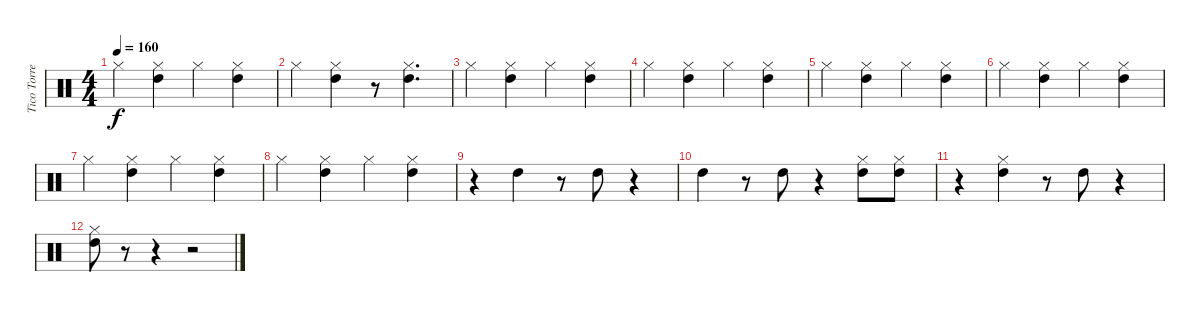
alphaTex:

\track ("Tico Torres" "Tico Torre") {instrument percussion}
\staff {score}
\articulation defaults
\ts (4 4)
\tempo 160
\clef neutral
\ks c "Hi-Hat (closed)".4{dy f}
("Hi-Hat (closed)" "High Tom (hit)").4 "Hi-Hat (closed)".4 ("Hi-Hat (closed)" "High Tom (hit)").4 |
"Hi-Hat (closed)".4 ("Hi-Hat (closed)" "High Tom (hit)").4 r.8 ("Hi-Hat (closed)" "High Tom (hit)").4{d} |
"Hi-Hat (closed)".4 ("Hi-Hat (closed)" "High Tom (hit)").4 "Hi-Hat (closed)".4 ("Hi-Hat (closed)" "High Tom (hit)").4 |
"Hi-Hat (closed)".4 ("Hi-Hat (closed)" "High Tom (hit)").4 "Hi-Hat (closed)".4 ("Hi-Hat (closed)" "High Tom (hit)").4 |
"Hi-Hat (closed)".4 ("Hi-Hat (closed)" "High Tom (hit)").4 "Hi-Hat (closed)".4 ("Hi-Hat (closed)" "High Tom (hit)").4 |
"Hi-Hat (closed)".4 ("Hi-Hat (closed)" "High Tom (hit)").4 "Hi-Hat (closed)".4 ("Hi-Hat (closed)" "High Tom (hit)").4 |
"Hi-Hat (closed)".4 ("Hi-Hat (closed)" "High Tom (hit)").4 "Hi-Hat (closed)".4 ("Hi-Hat (closed)" "High Tom (hit)").4 |
"Hi-Hat (closed)".4 ("Hi-Hat (closed)" "High Tom (hit)").4 "Hi-Hat (closed)".4 ("Hi-Hat (closed)" "High Tom (hit)").4 |
r.4 "High Tom (hit)".4 r.8 "High Tom (hit)".8 r.4 |
"High Tom (hit)".4 r.8 "High Tom (hit)".8 r.4 ("Hi-Hat (closed)" "High Tom (hit)").8 ("Hi-Hat (closed)" "High Tom (hit)").8 |
r.4 ("Hi-Hat (closed)" "High Tom (hit)").4 r.8 "High Tom (hit)".8 r.4 |
("Hi-Hat (closed)" "High Tom (hit)").8 r.8 r.4 r.2
